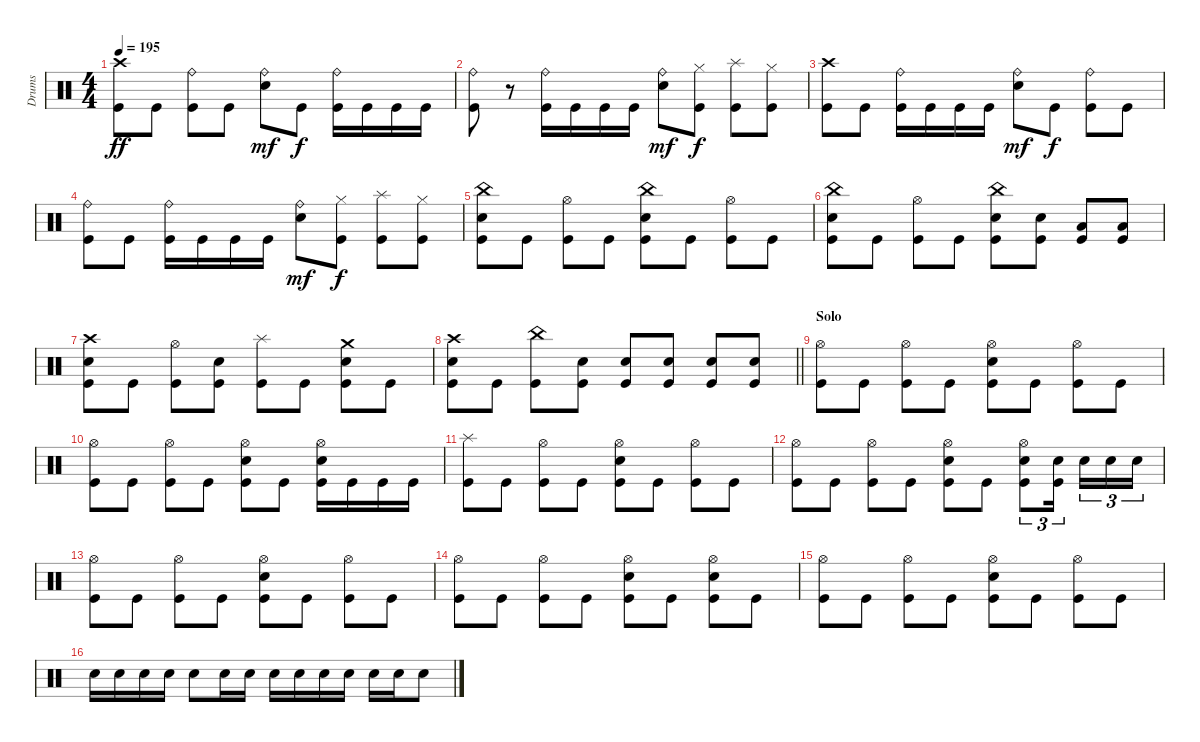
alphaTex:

\track ("Drums" "Drums") {instrument percussion}
\staff {score}
\articulation defaults
\ts (4 4)
\tempo 195
\clef neutral
\ks c
("Crash high (hit)" "Kick (hit)").8{dy ff} "Kick (hit)".8 ("Ride (bell)" "Kick (hit)").8 "Kick (hit)".8 ("Ride (bell)" "Snare (hit) 2").8{dy mf} "Kick (hit)".8{dy f} ("Ride (bell)" "Kick (hit)").16 "Kick (hit)".16 "Kick (hit)".16 "Kick (hit)".16 |
("Ride (bell)" "Kick (hit)").8 r.8 ("Ride (bell)" "Kick (hit)").16 "Kick (hit)".16 "Kick (hit)".16 "Kick (hit)".16 ("Ride (bell)" "Snare (hit) 2").8{dy mf} ("Hi-Hat (closed)" "Kick (hit)").8{dy f} ("Splash (hit)" "Kick (hit)").8 ("Hi-Hat (closed)" "Kick (hit)").8 |
("Crash high (hit)" "Kick (hit)").8 "Kick (hit)".8 ("Ride (bell)" "Kick (hit)").16 "Kick (hit)".16 "Kick (hit)".16 "Kick (hit)".16 ("Ride (bell)" "Snare (hit) 2").8{dy mf} "Kick (hit)".8{dy f} ("Ride (bell)" "Kick (hit)").8 "Kick (hit)".8 |
("Ride (bell)" "Kick (hit)").8 "Kick (hit)".8 ("Ride (bell)" "Kick (hit)").16 "Kick (hit)".16 "Kick (hit)".16 "Kick (hit)".16 ("Ride (bell)" "Snare (hit) 2").8{dy mf} ("Hi-Hat (closed)" "Kick (hit)").8{dy f} ("Splash (hit)" "Kick (hit)").8 ("Hi-Hat (closed)" "Kick (hit)").8 |
("China (hit)" "Snare (hit) 2" "Kick (hit)").8 "Kick (hit)".8 ("Hi-Hat (open)" "Kick (hit)").8 "Kick (hit)".8 ("China (hit)" "Snare (hit) 2" "Kick (hit)").8 "Kick (hit)".8 ("Hi-Hat (open)" "Kick (hit)").8 "Kick (hit)".8 |
("China (hit)" "Snare (hit) 2" "Kick (hit)").8 "Kick (hit)".8 ("Hi-Hat (open)" "Kick (hit)").8 "Kick (hit)".8 ("China (hit)" "Snare (hit) 2" "Kick (hit)").8 ("Snare (hit) 2" "Kick (hit)").8 ("Low Tom (hit)" "Kick (hit)").8 ("Low Tom (hit)" "Kick (hit)").8 |
("Crash high (hit)" "Snare (hit) 2" "Kick (hit)").8 "Kick (hit)".8 ("Hi-Hat (open)" "Kick (hit)").8 ("Snare (hit) 2" "Kick (hit)").8 ("Splash (hit)" "Kick (hit)").8 "Kick (hit)".8 ("Crash medium (hit)" "Snare (hit) 2" "Kick (hit)").8 "Kick (hit)".8 |
\barLineRight lightlight
("Crash high (hit)" "Snare (hit) 2" "Kick (hit)").8 "Kick (hit)".8 ("China (hit)" "Kick (hit)").8 ("Snare (hit) 2" "Kick (hit)").8 ("Snare (hit) 2" "Kick (hit)").8 ("Snare (hit) 2" "Kick (hit)").8 ("Snare (hit) 2" "Kick (hit)").8 ("Snare (hit) 2" "Kick (hit)").8 |
\section ("" "Solo")
("Hi-Hat (open)" "Kick (hit)").8 "Kick (hit)".8 ("Hi-Hat (open)" "Kick (hit)").8 "Kick (hit)".8 ("Hi-Hat (open)" "Snare (hit) 2" "Kick (hit)").8 "Kick (hit)".8 ("Hi-Hat (open)" "Kick (hit)").8 "Kick (hit)".8 |
("Hi-Hat (open)" "Kick (hit)").8 "Kick (hit)".8 ("Hi-Hat (open)" "Kick (hit)").8 "Kick (hit)".8 ("Hi-Hat (open)" "Snare (hit) 2" "Kick (hit)").8 "Kick (hit)".8 ("Hi-Hat (open)" "Snare (hit) 2" "Kick (hit)").16 "Kick (hit)".16 "Kick (hit)".16 "Kick (hit)".16 |
("Splash (hit)" "Kick (hit)").8 "Kick (hit)".8 ("Hi-Hat (open)" "Kick (hit)").8 "Kick (hit)".8 ("Hi-Hat (open)" "Snare (hit) 2" "Kick (hit)").8 "Kick (hit)".8 ("Hi-Hat (open)" "Kick (hit)").8 "Kick (hit)".8 |
("Hi-Hat (open)" "Kick (hit)").8 "Kick (hit)".8 ("Hi-Hat (open)" "Kick (hit)").8 "Kick (hit)".8 ("Hi-Hat (open)" "Snare (hit) 2" "Kick (hit)").8 "Kick (hit)".8 ("Hi-Hat (open)" "Snare (hit) 2" "Kick (hit)").8{tu (3 2)} ("Snare (hit) 2" "Kick (hit)").16{tu (3 2) beam splitsecondary} "Snare (hit) 2".16{tu (3 2)} "Snare (hit) 2".16{tu (3 2)} "Snare (hit) 2".16{tu (3 2)} |
("Hi-Hat (open)" "Kick (hit)").8 "Kick (hit)".8 ("Hi-Hat (open)" "Kick (hit)").8 "Kick (hit)".8 ("Hi-Hat (open)" "Snare (hit) 2" "Kick (hit)").8 "Kick (hit)".8 ("Hi-Hat (open)" "Kick (hit)").8 "Kick (hit)".8 |
("Hi-Hat (open)" "Kick (hit)").8 "Kick (hit)".8 ("Hi-Hat (open)" "Kick (hit)").8 "Kick (hit)".8 ("Hi-Hat (open)" "Snare (hit) 2" "Kick (hit)").8 "Kick (hit)".8 ("Hi-Hat (open)" "Snare (hit) 2" "Kick (hit)").8 "Kick (hit)".8 |
("Hi-Hat (open)" "Kick (hit)").8 "Kick (hit)".8 ("Hi-Hat (open)" "Kick (hit)").8 "Kick (hit)".8 ("Hi-Hat (open)" "Snare (hit) 2" "Kick (hit)").8 "Kick (hit)".8 ("Hi-Hat (open)" "Kick (hit)").8 "Kick (hit)".8 |
"Snare (hit) 2".16 "Snare (hit) 2".16 "Snare (hit) 2".16 "Snare (hit) 2".16 "Snare (hit) 2".8 "Snare (hit) 2".16 "Snare (hit) 2".16 "Snare (hit) 2".16 "Snare (hit) 2".16 "Snare (hit) 2".16 "Snare (hit) 2".16 "Snare (hit) 2".16 "Snare (hit) 2".16 "Snare (hit) 2".8
